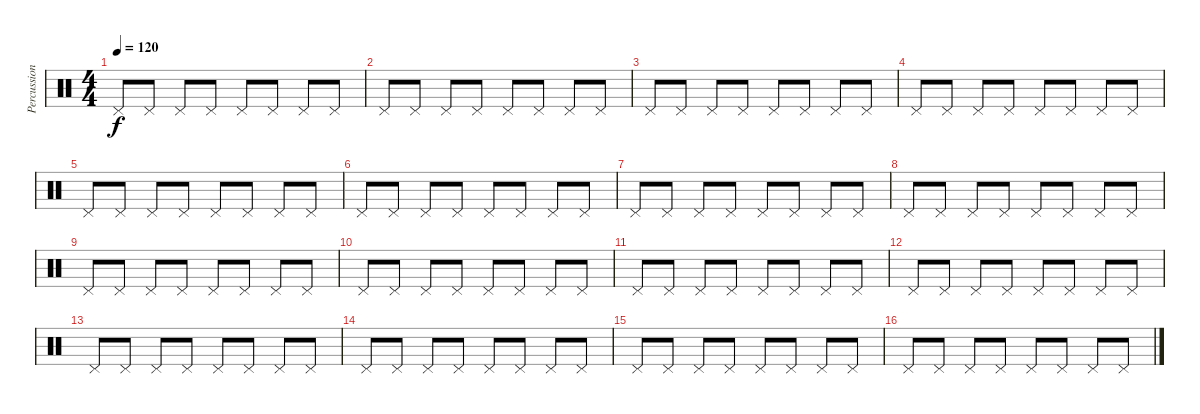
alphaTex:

\track ("Percussion" "Percussion") {instrument percussion}
\staff {score}
\articulation defaults
\ts (4 4)
\tempo 120
\clef neutral
\ks c "Pedal Hi-Hat (hit)".8{dy f} "Pedal Hi-Hat (hit)".8 "Pedal Hi-Hat (hit)".8 "Pedal Hi-Hat (hit)".8 "Pedal Hi-Hat (hit)".8 "Pedal Hi-Hat (hit)".8 "Pedal Hi-Hat (hit)".8 "Pedal Hi-Hat (hit)".8
|
"Pedal Hi-Hat (hit)".8 "Pedal Hi-Hat (hit)".8 "Pedal Hi-Hat (hit)".8 "Pedal Hi-Hat (hit)".8 "Pedal Hi-Hat (hit)".8 "Pedal Hi-Hat (hit)".8 "Pedal Hi-Hat (hit)".8 "Pedal Hi-Hat (hit)".8 |
"Pedal Hi-Hat (hit)".8 "Pedal Hi-Hat (hit)".8 "Pedal Hi-Hat (hit)".8 "Pedal Hi-Hat (hit)".8 "Pedal Hi-Hat (hit)".8 "Pedal Hi-Hat (hit)".8 "Pedal Hi-Hat (hit)".8 "Pedal Hi-Hat (hit)".8 |
"Pedal Hi-Hat (hit)".8 "Pedal Hi-Hat (hit)".8 "Pedal Hi-Hat (hit)".8 "Pedal Hi-Hat (hit)".8 "Pedal Hi-Hat (hit)".8 "Pedal Hi-Hat (hit)".8 "Pedal Hi-Hat (hit)".8 "Pedal Hi-Hat (hit)".8 |
"Pedal Hi-Hat (hit)".8 "Pedal Hi-Hat (hit)".8 "Pedal Hi-Hat (hit)".8 "Pedal Hi-Hat (hit)".8 "Pedal Hi-Hat (hit)".8 "Pedal Hi-Hat (hit)".8 "Pedal Hi-Hat (hit)".8 "Pedal Hi-Hat (hit)".8 |
"Pedal Hi-Hat (hit)".8 "Pedal Hi-Hat (hit)".8 "Pedal Hi-Hat (hit)".8 "Pedal Hi-Hat (hit)".8 "Pedal Hi-Hat (hit)".8 "Pedal Hi-Hat (hit)".8 "Pedal Hi-Hat (hit)".8 "Pedal Hi-Hat (hit)".8 |
"Pedal Hi-Hat (hit)".8 "Pedal Hi-Hat (hit)".8 "Pedal Hi-Hat (hit)".8 "Pedal Hi-Hat (hit)".8 "Pedal Hi-Hat (hit)".8 "Pedal Hi-Hat (hit)".8 "Pedal Hi-Hat (hit)".8 "Pedal Hi-Hat (hit)".8 |
"Pedal Hi-Hat (hit)".8 "Pedal Hi-Hat (hit)".8 "Pedal Hi-Hat (hit)".8 "Pedal Hi-Hat (hit)".8 "Pedal Hi-Hat (hit)".8 "Pedal Hi-Hat (hit)".8 "Pedal Hi-Hat (hit)".8 "Pedal Hi-Hat (hit)".8 |
"Pedal Hi-Hat (hit)".8 "Pedal Hi-Hat (hit)".8 "Pedal Hi-Hat (hit)".8 "Pedal Hi-Hat (hit)".8 "Pedal Hi-Hat (hit)".8 "Pedal Hi-Hat (hit)".8 "Pedal Hi-Hat (hit)".8 "Pedal Hi-Hat (hit)".8 |
"Pedal Hi-Hat (hit)".8 "Pedal Hi-Hat (hit)".8 "Pedal Hi-Hat (hit)".8 "Pedal Hi-Hat (hit)".8 "Pedal Hi-Hat (hit)".8 "Pedal Hi-Hat (hit)".8 "Pedal Hi-Hat (hit)".8 "Pedal Hi-Hat (hit)".8 |
"Pedal Hi-Hat (hit)".8 "Pedal Hi-Hat (hit)".8 "Pedal Hi-Hat (hit)".8 "Pedal Hi-Hat (hit)".8 "Pedal Hi-Hat (hit)".8 "Pedal Hi-Hat (hit)".8 "Pedal Hi-Hat (hit)".8 "Pedal Hi-Hat (hit)".8 |
"Pedal Hi-Hat (hit)".8 "Pedal Hi-Hat (hit)".8 "Pedal Hi-Hat (hit)".8 "Pedal Hi-Hat (hit)".8 "Pedal Hi-Hat (hit)".8 "Pedal Hi-Hat (hit)".8 "Pedal Hi-Hat (hit)".8 "Pedal Hi-Hat (hit)".8 |
"Pedal Hi-Hat (hit)".8 "Pedal Hi-Hat (hit)".8 "Pedal Hi-Hat (hit)".8 "Pedal Hi-Hat (hit)".8 "Pedal Hi-Hat (hit)".8 "Pedal Hi-Hat (hit)".8 "Pedal Hi-Hat (hit)".8 "Pedal Hi-Hat (hit)".8 |
"Pedal Hi-Hat (hit)".8 "Pedal Hi-Hat (hit)".8 "Pedal Hi-Hat (hit)".8 "Pedal Hi-Hat (hit)".8 "Pedal Hi-Hat (hit)".8 "Pedal Hi-Hat (hit)".8 "Pedal Hi-Hat (hit)".8 "Pedal Hi-Hat (hit)".8 |
"Pedal Hi-Hat (hit)".8 "Pedal Hi-Hat (hit)".8 "Pedal Hi-Hat (hit)".8 "Pedal Hi-Hat (hit)".8 "Pedal Hi-Hat (hit)".8 "Pedal Hi-Hat (hit)".8 "Pedal Hi-Hat (hit)".8 "Pedal Hi-Hat (hit)".8 |
"Pedal Hi-Hat (hit)".8 "Pedal Hi-Hat (hit)".8 "Pedal Hi-Hat (hit)".8 "Pedal Hi-Hat (hit)".8 "Pedal Hi-Hat (hit)".8 "Pedal Hi-Hat (hit)".8 "Pedal Hi-Hat (hit)".8 "Pedal Hi-Hat (hit)".8
